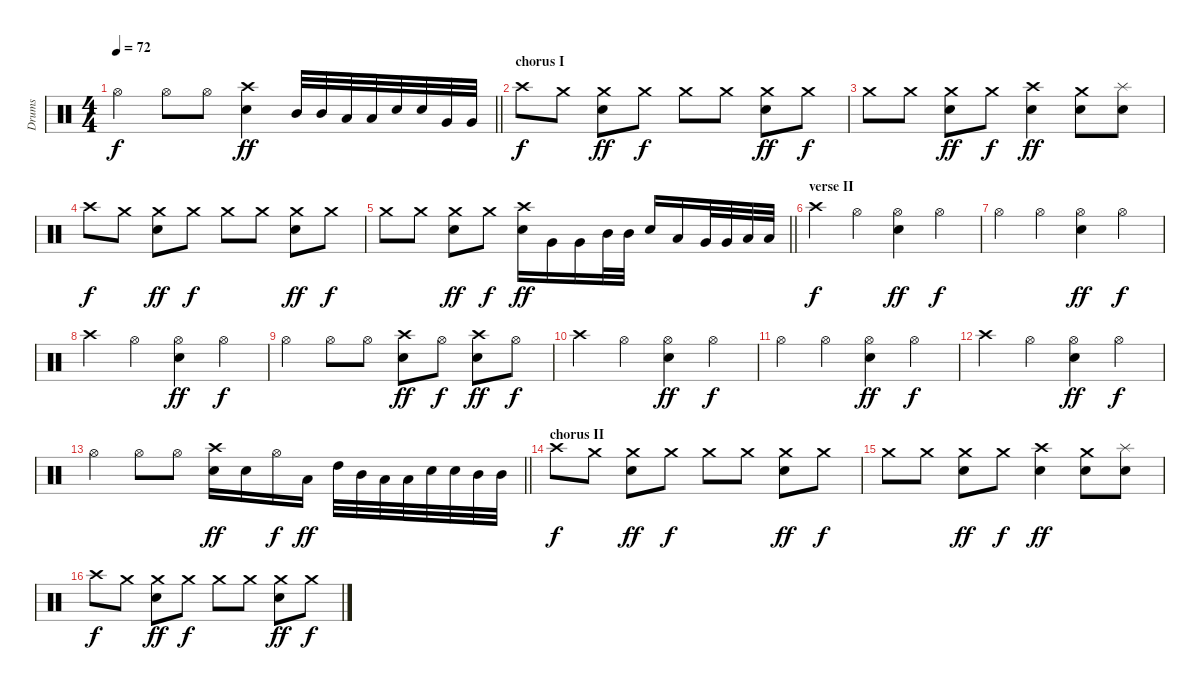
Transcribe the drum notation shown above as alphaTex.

\track ("Drums" "Drums") {instrument percussion}
\staff {score}
\articulation defaults
\ts (4 4)
\tempo 72
\clef neutral
\barLineRight lightlight
\ks c "Hi-Hat (open)".4{dy f} "Hi-Hat (open)".8 "Hi-Hat (open)".8
("Crash high (hit)" "Snare (hit) 2").4{dy ff} "Mid Tom (hit)".32 "Mid Tom (hit)".32 "Low Tom (hit)".32 "Low Tom (hit)".32 "Snare (hit) 2".32 "Snare (hit) 2".32 "Very Low Tom (hit)".32 "Very Low Tom (hit)".32 |
\section ("" "chorus I")
"Crash high (hit)".8{dy f} "Crash medium (hit)".8 ("Crash medium (hit)" "Snare (hit) 2").8{dy ff} "Crash medium (hit)".8{dy f} "Crash medium (hit)".8 "Crash medium (hit)".8 ("Crash medium (hit)" "Snare (hit) 2").8{dy ff} "Crash medium (hit)".8{dy f} |
"Crash medium (hit)".8 "Crash medium (hit)".8 ("Crash medium (hit)" "Snare (hit) 2").8{dy ff} "Crash medium (hit)".8{dy f} ("Crash high (hit)" "Snare (hit) 2").4{dy ff} ("Crash medium (hit)" "Snare (hit) 2").8 ("Splash (hit)" "Snare (hit) 2").8 |
"Crash high (hit)".8{dy f} "Crash medium (hit)".8 ("Crash medium (hit)" "Snare (hit) 2").8{dy ff} "Crash medium (hit)".8{dy f} "Crash medium (hit)".8 "Crash medium (hit)".8 ("Crash medium (hit)" "Snare (hit) 2").8{dy ff} "Crash medium (hit)".8{dy f} |
\barLineRight lightlight "Crash medium (hit)".8 "Crash medium (hit)".8
("Crash medium (hit)" "Snare (hit) 2").8{dy ff} "Crash medium (hit)".8{dy f} ("Crash high (hit)" "Snare (hit) 2").16{dy ff} "Very Low Tom (hit)".16 "Very Low Tom (hit)".16 "Mid Tom (hit)".32 "Mid Tom (hit)".32 "Snare (hit) 2".16 "Low Tom (hit)".16 "Very Low Tom (hit)".32 "Very Low Tom (hit)".32 "Low Floor Tom (hit)".32 "Low Floor Tom (hit)".32 |
\section ("" "verse II")
"Crash high (hit)".4{dy f} "Hi-Hat (open)".4 ("Hi-Hat (open)" "Snare (hit) 2").4{dy ff} "Hi-Hat (open)".4{dy f} |
"Hi-Hat (open)".4 "Hi-Hat (open)".4 ("Hi-Hat (open)" "Snare (hit) 2").4{dy ff} "Hi-Hat (open)".4{dy f} |
"Crash high (hit)".4 "Hi-Hat (open)".4 ("Hi-Hat (open)" "Snare (hit) 2").4{dy ff} "Hi-Hat (open)".4{dy f} |
"Hi-Hat (open)".4 "Hi-Hat (open)".8 "Hi-Hat (open)".8 ("Crash high (hit)" "Snare (hit) 2").8{dy ff} "Hi-Hat (open)".8{dy f} ("Crash high (hit)" "Snare (hit) 2").8{dy ff} "Hi-Hat (open)".8{dy f} |
"Crash high (hit)".4 "Hi-Hat (open)".4 ("Hi-Hat (open)" "Snare (hit) 2").4{dy ff} "Hi-Hat (open)".4{dy f} |
"Hi-Hat (open)".4 "Hi-Hat (open)".4 ("Hi-Hat (open)" "Snare (hit) 2").4{dy ff} "Hi-Hat (open)".4{dy f} |
"Crash high (hit)".4 "Hi-Hat (open)".4 ("Hi-Hat (open)" "Snare (hit) 2").4{dy ff} "Hi-Hat (open)".4{dy f} |
\barLineRight lightlight "Hi-Hat (open)".4 "Hi-Hat (open)".8 "Hi-Hat (open)".8
("Crash high (hit)" "Snare (hit) 2").16{dy ff} "Snare (hit) 2".16 "Hi-Hat (open)".16{dy f} "Low Tom (hit)".16{dy ff} "High Tom (hit)".32 "Mid Tom (hit)".32 "Low Tom (hit)".32 "Low Tom (hit)".32 "Snare (hit) 2".32 "Snare (hit) 2".32 "Mid Tom (hit)".32 "Mid Tom (hit)".32 |
\section ("" "chorus II")
"Crash high (hit)".8{dy f} "Crash medium (hit)".8 ("Crash medium (hit)" "Snare (hit) 2").8{dy ff} "Crash medium (hit)".8{dy f} "Crash medium (hit)".8 "Crash medium (hit)".8 ("Crash medium (hit)" "Snare (hit) 2").8{dy ff} "Crash medium (hit)".8{dy f} |
"Crash medium (hit)".8 "Crash medium (hit)".8 ("Crash medium (hit)" "Snare (hit) 2").8{dy ff} "Crash medium (hit)".8{dy f} ("Crash high (hit)" "Snare (hit) 2").4{dy ff} ("Crash medium (hit)" "Snare (hit) 2").8 ("Splash (hit)" "Snare (hit) 2").8 |
"Crash high (hit)".8{dy f} "Crash medium (hit)".8 ("Crash medium (hit)" "Snare (hit) 2").8{dy ff} "Crash medium (hit)".8{dy f} "Crash medium (hit)".8 "Crash medium (hit)".8 ("Crash medium (hit)" "Snare (hit) 2").8{dy ff} "Crash medium (hit)".8{dy f}
